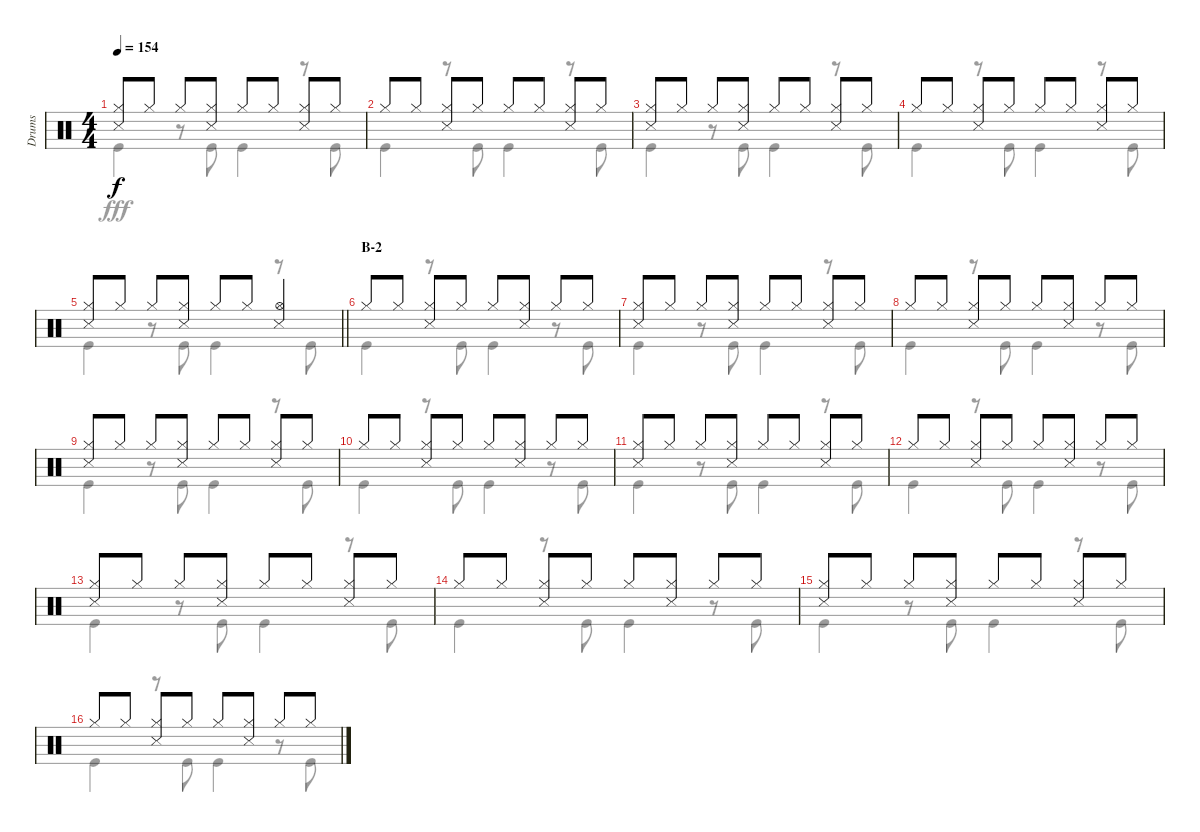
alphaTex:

\track ("Drums" "Drums") {instrument percussion}
\staff {score}
\articulation defaults
\voice
\ts (4 4)
\tempo 154
\clef neutral
\ks c
("Hi-Hat (closed)" "Snare (side stick) 3").8{dy f} "Hi-Hat (closed)".8 "Hi-Hat (closed)".8 ("Hi-Hat (closed)" "Snare (side stick) 3").8 "Hi-Hat (closed)".8 "Hi-Hat (closed)".8 ("Hi-Hat (closed)" "Snare (side stick) 3").8 "Hi-Hat (closed)".8 |
"Hi-Hat (closed)".8 "Hi-Hat (closed)".8 ("Hi-Hat (closed)" "Snare (side stick) 3").8 "Hi-Hat (closed)".8 "Hi-Hat (closed)".8 "Hi-Hat (closed)".8 ("Hi-Hat (closed)" "Snare (side stick) 3").8 "Hi-Hat (closed)".8 |
("Hi-Hat (closed)" "Snare (side stick) 3").8 "Hi-Hat (closed)".8 "Hi-Hat (closed)".8 ("Hi-Hat (closed)" "Snare (side stick) 3").8 "Hi-Hat (closed)".8 "Hi-Hat (closed)".8 ("Hi-Hat (closed)" "Snare (side stick) 3").8 "Hi-Hat (closed)".8 |
"Hi-Hat (closed)".8 "Hi-Hat (closed)".8 ("Hi-Hat (closed)" "Snare (side stick) 3").8 "Hi-Hat (closed)".8 "Hi-Hat (closed)".8 "Hi-Hat (closed)".8 ("Hi-Hat (closed)" "Snare (side stick) 3").8 "Hi-Hat (closed)".8 |
\barLineRight lightlight
("Hi-Hat (closed)" "Snare (side stick) 3").8 "Hi-Hat (closed)".8 "Hi-Hat (closed)".8 ("Hi-Hat (closed)" "Snare (side stick) 3").8 "Hi-Hat (closed)".8 "Hi-Hat (closed)".8 ("Hi-Hat (open)" "Snare (side stick) 3").4 |
\section ("" "B-2")
"Hi-Hat (closed)".8 "Hi-Hat (closed)".8 ("Hi-Hat (closed)" "Snare (side stick) 3").8 "Hi-Hat (closed)".8 "Hi-Hat (closed)".8 ("Hi-Hat (closed)" "Snare (side stick) 3").8 "Hi-Hat (closed)".8 "Hi-Hat (closed)".8 |
("Hi-Hat (closed)" "Snare (side stick) 3").8 "Hi-Hat (closed)".8 "Hi-Hat (closed)".8 ("Hi-Hat (closed)" "Snare (side stick) 3").8 "Hi-Hat (closed)".8 "Hi-Hat (closed)".8 ("Hi-Hat (closed)" "Snare (side stick) 3").8 "Hi-Hat (closed)".8 |
"Hi-Hat (closed)".8 "Hi-Hat (closed)".8 ("Hi-Hat (closed)" "Snare (side stick) 3").8 "Hi-Hat (closed)".8 "Hi-Hat (closed)".8 ("Hi-Hat (closed)" "Snare (side stick) 3").8 "Hi-Hat (closed)".8 "Hi-Hat (closed)".8 |
("Hi-Hat (closed)" "Snare (side stick) 3").8 "Hi-Hat (closed)".8 "Hi-Hat (closed)".8 ("Hi-Hat (closed)" "Snare (side stick) 3").8 "Hi-Hat (closed)".8 "Hi-Hat (closed)".8 ("Hi-Hat (closed)" "Snare (side stick) 3").8 "Hi-Hat (closed)".8 |
"Hi-Hat (closed)".8 "Hi-Hat (closed)".8 ("Hi-Hat (closed)" "Snare (side stick) 3").8 "Hi-Hat (closed)".8 "Hi-Hat (closed)".8 ("Hi-Hat (closed)" "Snare (side stick) 3").8 "Hi-Hat (closed)".8 "Hi-Hat (closed)".8 |
("Hi-Hat (closed)" "Snare (side stick) 3").8 "Hi-Hat (closed)".8 "Hi-Hat (closed)".8 ("Hi-Hat (closed)" "Snare (side stick) 3").8 "Hi-Hat (closed)".8 "Hi-Hat (closed)".8 ("Hi-Hat (closed)" "Snare (side stick) 3").8 "Hi-Hat (closed)".8 |
"Hi-Hat (closed)".8 "Hi-Hat (closed)".8 ("Hi-Hat (closed)" "Snare (side stick) 3").8 "Hi-Hat (closed)".8 "Hi-Hat (closed)".8 ("Hi-Hat (closed)" "Snare (side stick) 3").8 "Hi-Hat (closed)".8 "Hi-Hat (closed)".8 |
("Hi-Hat (closed)" "Snare (side stick) 3").8 "Hi-Hat (closed)".8 "Hi-Hat (closed)".8 ("Hi-Hat (closed)" "Snare (side stick) 3").8 "Hi-Hat (closed)".8 "Hi-Hat (closed)".8 ("Hi-Hat (closed)" "Snare (side stick) 3").8 "Hi-Hat (closed)".8 |
"Hi-Hat (closed)".8 "Hi-Hat (closed)".8 ("Hi-Hat (closed)" "Snare (side stick) 3").8 "Hi-Hat (closed)".8 "Hi-Hat (closed)".8 ("Hi-Hat (closed)" "Snare (side stick) 3").8 "Hi-Hat (closed)".8 "Hi-Hat (closed)".8 |
("Hi-Hat (closed)" "Snare (side stick) 3").8 "Hi-Hat (closed)".8 "Hi-Hat (closed)".8 ("Hi-Hat (closed)" "Snare (side stick) 3").8 "Hi-Hat (closed)".8 "Hi-Hat (closed)".8 ("Hi-Hat (closed)" "Snare (side stick) 3").8 "Hi-Hat (closed)".8 |
"Hi-Hat (closed)".8 "Hi-Hat (closed)".8 ("Hi-Hat (closed)" "Snare (side stick) 3").8 "Hi-Hat (closed)".8 "Hi-Hat (closed)".8 ("Hi-Hat (closed)" "Snare (side stick) 3").8 "Hi-Hat (closed)".8 "Hi-Hat (closed)".8
\voice
\clef neutral
\ottava regular
\simile none
\ks c "Kick (hit)".4{dy fff}
r.8 "Kick (hit)".8 "Kick (hit)".4 r.8 "Kick (hit)".8 |
"Kick (hit)".4 r.8 "Kick (hit)".8 "Kick (hit)".4 r.8 "Kick (hit)".8 |
"Kick (hit)".4 r.8 "Kick (hit)".8 "Kick (hit)".4 r.8 "Kick (hit)".8 |
"Kick (hit)".4 r.8 "Kick (hit)".8 "Kick (hit)".4 r.8 "Kick (hit)".8 |
\barLineRight lightlight "Kick (hit)".4
r.8 "Kick (hit)".8 "Kick (hit)".4 r.8 "Kick (hit)".8 |
"Kick (hit)".4 r.8 "Kick (hit)".8 "Kick (hit)".4 r.8 "Kick (hit)".8 |
"Kick (hit)".4 r.8 "Kick (hit)".8 "Kick (hit)".4 r.8 "Kick (hit)".8 |
"Kick (hit)".4 r.8 "Kick (hit)".8 "Kick (hit)".4 r.8 "Kick (hit)".8 |
"Kick (hit)".4 r.8 "Kick (hit)".8 "Kick (hit)".4 r.8 "Kick (hit)".8 |
"Kick (hit)".4 r.8 "Kick (hit)".8 "Kick (hit)".4 r.8 "Kick (hit)".8 |
"Kick (hit)".4 r.8 "Kick (hit)".8 "Kick (hit)".4 r.8 "Kick (hit)".8 |
"Kick (hit)".4 r.8 "Kick (hit)".8 "Kick (hit)".4 r.8 "Kick (hit)".8 |
"Kick (hit)".4 r.8 "Kick (hit)".8 "Kick (hit)".4 r.8 "Kick (hit)".8 |
"Kick (hit)".4 r.8 "Kick (hit)".8 "Kick (hit)".4 r.8 "Kick (hit)".8 |
"Kick (hit)".4 r.8 "Kick (hit)".8 "Kick (hit)".4 r.8 "Kick (hit)".8 |
"Kick (hit)".4 r.8 "Kick (hit)".8 "Kick (hit)".4 r.8 "Kick (hit)".8
